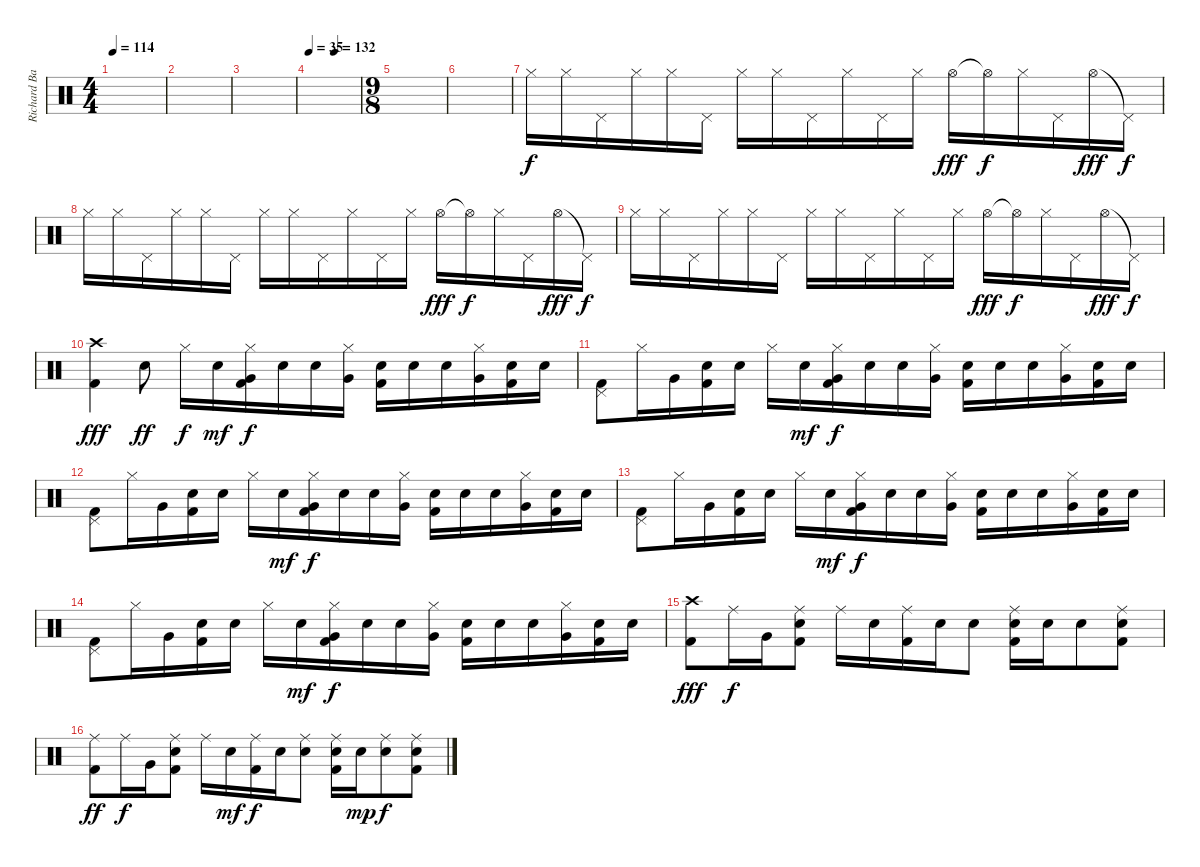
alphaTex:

\track ("Richard Bailey" "Richard Ba") {instrument percussion}
\staff {score}
\articulation defaults
\ts (4 4)
\tempo 114
\clef neutral
\ks c
|
|
|
\tempo 35
\tempo (132 0.5)
|
\ts (9 8)
|
|
"Hi-Hat (closed)".16 "Hi-Hat (closed)".16 "Pedal Hi-Hat (hit)".16 "Hi-Hat (closed)".16 "Hi-Hat (closed)".16 "Pedal Hi-Hat (hit)".16 "Hi-Hat (closed)".16 "Hi-Hat (closed)".16 "Pedal Hi-Hat (hit)".16 "Hi-Hat (closed)".16 "Pedal Hi-Hat (hit)".16 "Hi-Hat (closed)".16 "Hi-Hat (open)".16{dy fff} "Hi-Hat (open)"{t}.16{dy f} "Hi-Hat (closed)".16 "Pedal Hi-Hat (hit)".16 "Hi-Hat (open)".16{dy fff} "Pedal Hi-Hat (hit)"{t}.16{dy f} |
"Hi-Hat (closed)".16 "Hi-Hat (closed)".16 "Pedal Hi-Hat (hit)".16 "Hi-Hat (closed)".16 "Hi-Hat (closed)".16 "Pedal Hi-Hat (hit)".16 "Hi-Hat (closed)".16 "Hi-Hat (closed)".16 "Pedal Hi-Hat (hit)".16 "Hi-Hat (closed)".16 "Pedal Hi-Hat (hit)".16 "Hi-Hat (closed)".16 "Hi-Hat (open)".16{dy fff} "Hi-Hat (open)"{t}.16{dy f} "Hi-Hat (closed)".16 "Pedal Hi-Hat (hit)".16 "Hi-Hat (open)".16{dy fff} "Pedal Hi-Hat (hit)"{t}.16{dy f} |
"Hi-Hat (closed)".16 "Hi-Hat (closed)".16 "Pedal Hi-Hat (hit)".16 "Hi-Hat (closed)".16 "Hi-Hat (closed)".16 "Pedal Hi-Hat (hit)".16 "Hi-Hat (closed)".16 "Hi-Hat (closed)".16 "Pedal Hi-Hat (hit)".16 "Hi-Hat (closed)".16 "Pedal Hi-Hat (hit)".16 "Hi-Hat (closed)".16 "Hi-Hat (open)".16{dy fff} "Hi-Hat (open)"{t}.16{dy f} "Hi-Hat (closed)".16 "Pedal Hi-Hat (hit)".16 "Hi-Hat (open)".16{dy fff} "Pedal Hi-Hat (hit)"{t}.16{dy f} |
("Crash high (hit)" "Kick (hit) 2").4{dy fff} "Snare (hit) 2".8{dy ff} "Hi-Hat (closed)".16{dy f} "Snare (hit) 2".16{dy mf} ("Hi-Hat (closed)" "Very Low Tom (hit)" "Kick (hit) 2").16{dy f} "Snare (hit) 2".16 "Snare (hit) 2".16 ("Hi-Hat (closed)" "Very Low Tom (hit)").16 ("Snare (hit) 2" "Kick (hit) 2").16 "Snare (hit) 2".16 "Snare (hit) 2".16 ("Hi-Hat (closed)" "Very Low Tom (hit)").16 ("Snare (hit) 2" "Kick (hit) 2").16 "Snare (hit) 2".16 |
("Pedal Hi-Hat (hit)" "Kick (hit) 2").8 "Hi-Hat (closed)".16 "Very Low Tom (hit)".16 ("Snare (hit) 2" "Kick (hit) 2").16 "Snare (hit) 2".16 "Hi-Hat (closed)".16 "Snare (hit) 2".16{dy mf} ("Hi-Hat (closed)" "Very Low Tom (hit)" "Kick (hit) 2").16{dy f} "Snare (hit) 2".16 "Snare (hit) 2".16 ("Hi-Hat (closed)" "Very Low Tom (hit)").16 ("Snare (hit) 2" "Kick (hit) 2").16 "Snare (hit) 2".16 "Snare (hit) 2".16 ("Hi-Hat (closed)" "Very Low Tom (hit)").16 ("Snare (hit) 2" "Kick (hit) 2").16 "Snare (hit) 2".16 |
("Pedal Hi-Hat (hit)" "Kick (hit) 2").8 "Hi-Hat (closed)".16 "Very Low Tom (hit)".16 ("Snare (hit) 2" "Kick (hit) 2").16 "Snare (hit) 2".16 "Hi-Hat (closed)".16 "Snare (hit) 2".16{dy mf} ("Hi-Hat (closed)" "Very Low Tom (hit)" "Kick (hit) 2").16{dy f} "Snare (hit) 2".16 "Snare (hit) 2".16 ("Hi-Hat (closed)" "Very Low Tom (hit)").16 ("Snare (hit) 2" "Kick (hit) 2").16 "Snare (hit) 2".16 "Snare (hit) 2".16 ("Hi-Hat (closed)" "Very Low Tom (hit)").16 ("Snare (hit) 2" "Kick (hit) 2").16 "Snare (hit) 2".16 |
("Pedal Hi-Hat (hit)" "Kick (hit) 2").8 "Hi-Hat (closed)".16 "Very Low Tom (hit)".16 ("Snare (hit) 2" "Kick (hit) 2").16 "Snare (hit) 2".16 "Hi-Hat (closed)".16 "Snare (hit) 2".16{dy mf} ("Hi-Hat (closed)" "Very Low Tom (hit)" "Kick (hit) 2").16{dy f} "Snare (hit) 2".16 "Snare (hit) 2".16 ("Hi-Hat (closed)" "Very Low Tom (hit)").16 ("Snare (hit) 2" "Kick (hit) 2").16 "Snare (hit) 2".16 "Snare (hit) 2".16 ("Hi-Hat (closed)" "Very Low Tom (hit)").16 ("Snare (hit) 2" "Kick (hit) 2").16 "Snare (hit) 2".16 |
("Pedal Hi-Hat (hit)" "Kick (hit) 2").8 "Hi-Hat (closed)".16 "Very Low Tom (hit)".16 ("Snare (hit) 2" "Kick (hit) 2").16 "Snare (hit) 2".16 "Hi-Hat (closed)".16 "Snare (hit) 2".16{dy mf} ("Hi-Hat (closed)" "Very Low Tom (hit)" "Kick (hit) 2").16{dy f} "Snare (hit) 2".16 "Snare (hit) 2".16 ("Hi-Hat (closed)" "Very Low Tom (hit)").16 ("Snare (hit) 2" "Kick (hit) 2").16 "Snare (hit) 2".16 "Snare (hit) 2".16 ("Hi-Hat (closed)" "Very Low Tom (hit)").16 ("Snare (hit) 2" "Kick (hit) 2").16 "Snare (hit) 2".16 |
("Crash high (hit)" "Kick (hit) 2").8{dy fff} "Ride (middle)".16{dy f} "Very Low Tom (hit)".16 ("Ride (middle)" "Snare (hit) 2" "Kick (hit) 2").8 "Ride (middle)".16 "Snare (hit) 2".16 ("Ride (middle)" "Kick (hit) 2").16 "Snare (hit) 2".16 "Snare (hit) 2".8 ("Ride (middle)" "Snare (hit) 2" "Kick (hit) 2").16 "Snare (hit) 2".16 "Snare (hit) 2".8 ("Ride (middle)" "Snare (hit) 2" "Kick (hit) 2").8 |
("Ride (middle)" "Kick (hit) 2").8{dy ff} "Ride (middle)".16{dy f} "Very Low Tom (hit)".16 ("Ride (middle)" "Snare (hit) 2" "Kick (hit) 2").8 "Ride (middle)".16 "Snare (hit) 2".16{dy mf} ("Ride (middle)" "Kick (hit) 2").16{dy f} "Snare (hit) 2".16 ("Ride (middle)" "Snare (hit) 2").8 ("Ride (middle)" "Snare (hit) 2" "Kick (hit) 2").16 "Snare (hit) 2".16{dy mp} ("Ride (middle)" "Snare (hit) 2").8{dy f} ("Ride (middle)" "Snare (hit) 2" "Kick (hit) 2").8
